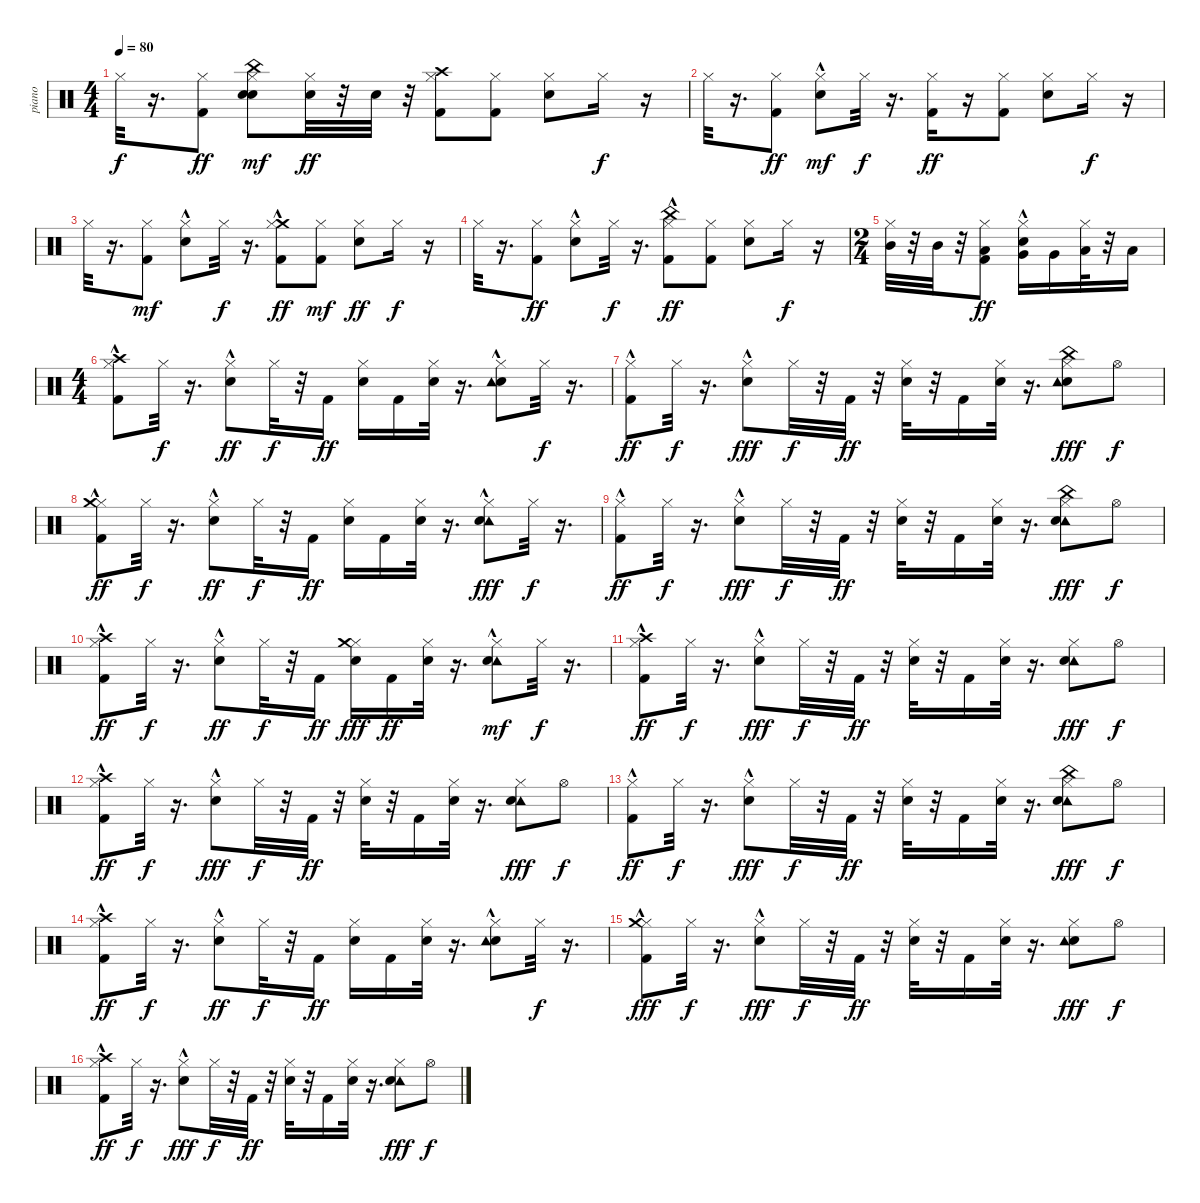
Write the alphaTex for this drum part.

\track ("piano" "piano") {instrument percussion}
\staff {score}
\articulation defaults
\ts (4 4)
\tempo 80
\clef neutral
\ks c "Hi-Hat (closed)".32{dy f}
r.16{d} ("Hi-Hat (closed)" "Kick (hit) 2").8{dy ff} ("Snare (hit) 2" "Snare (hit) 2" "China (hit)" "Hi-Hat (closed)").8{dy mf} ("Hi-Hat (closed)" "Snare (hit) 2").32{dy ff} r.32 "Snare (hit) 2".32 r.32 ("Hi-Hat (closed)" "Kick (hit) 2" "Crash high (hit)").8 ("Hi-Hat (closed)" "Kick (hit) 2").8 ("Snare (hit) 2" "Hi-Hat (closed)").8 "Hi-Hat (closed)".16{dy f} r.16 |
"Hi-Hat (closed)".32 r.16{d} ("Hi-Hat (closed)" "Kick (hit) 2").8{dy ff} ("Snare (hit) 2"{hac} "Hi-Hat (closed)").8{dy mf} "Hi-Hat (closed)".32{dy f} r.16{d} ("Hi-Hat (closed)" "Kick (hit) 2").16{dy ff} r.16 ("Hi-Hat (closed)" "Kick (hit) 2").8 ("Snare (hit) 2" "Hi-Hat (closed)").8 "Hi-Hat (closed)".16{dy f} r.16 |
"Hi-Hat (closed)".32 r.16{d} ("Kick (hit) 2" "Hi-Hat (closed)").8{dy mf} ("Snare (hit) 2"{hac} "Hi-Hat (closed)").8 "Hi-Hat (closed)".32{dy f} r.16{d} ("Kick (hit) 2" "Crash medium (hit)"{hac} "Hi-Hat (closed)").8{dy ff} ("Kick (hit) 2" "Hi-Hat (closed)").8{dy mf} ("Hi-Hat (closed)" "Snare (hit) 2").8{dy ff} "Hi-Hat (closed)".16{dy f} r.16 |
"Hi-Hat (closed)".32 r.16{d} ("Hi-Hat (closed)" "Kick (hit) 2").8{dy ff} ("Hi-Hat (closed)" "Snare (hit) 2"{hac}).8 "Hi-Hat (closed)".32{dy f} r.16{d} ("China (hit)"{hac} "Kick (hit) 2" "Hi-Hat (closed)").8{dy ff} ("Hi-Hat (closed)" "Kick (hit) 2").8 ("Snare (hit) 2" "Hi-Hat (closed)").8 "Hi-Hat (closed)".16{dy f} r.16 |
\ts (2 4)
("Mid Tom (hit)" "Hi-Hat (closed)").32 r.32 "Mid Tom (hit)".32 r.32 ("Kick (hit) 2" "Hi-Hat (closed)" "Low Tom (hit)").8{dy ff} ("Hi-Hat (closed)" "Snare (hit) 2"{hac} "Very Low Tom (hit)").16 "Very Low Tom (hit)".16 ("Low Floor Tom (hit)" "Hi-Hat (closed)").32 r.32 "Low Floor Tom (hit)".16 |
\ts (4 4)
("Crash high (hit)"{hac} "Kick (hit) 2"{hac} "Hi-Hat (closed)").8 "Hi-Hat (closed)".32{dy f} r.16{d} ("Hi-Hat (closed)" "Snare (hit) 2"{hac}).8{dy ff} "Hi-Hat (closed)".32{dy f} r.32 "Kick (hit) 2".16{dy ff} ("Hi-Hat (closed)" "Snare (hit) 2").16 "Kick (hit) 2".16 ("Snare (hit) 2" "Hi-Hat (closed)").32 r.16{d} ("Snare (hit) 2" "Hi-Hat (closed)" "Tambourine (hit)"{hac}).8 "Hi-Hat (closed)".32{dy f} r.16{d} |
("Kick (hit) 2"{hac} "Hi-Hat (closed)").8{dy ff} "Hi-Hat (closed)".32{dy f} r.16{d} ("Snare (hit) 2"{hac} "Hi-Hat (closed)").8{dy fff} "Hi-Hat (closed)".32{dy f} r.32 "Kick (hit) 2".32{dy ff} r.32 ("Snare (hit) 2" "Hi-Hat (closed)").32 r.32 "Kick (hit) 2".16 ("Hi-Hat (closed)" "Snare (hit) 2").32 r.16{d} ("Hi-Hat (closed)" "Snare (hit) 2" "Tambourine (hit)" "China (hit)").8{dy fff} "Hi-Hat (open)".8{dy f} |
("Hi-Hat (closed)" "Crash medium (hit)" "Kick (hit) 2"{hac}).8{dy ff} "Hi-Hat (closed)".32{dy f} r.16{d} ("Snare (hit) 2"{hac} "Hi-Hat (closed)").8{dy ff} "Hi-Hat (closed)".32{dy f} r.32 "Kick (hit) 2".16{dy ff} ("Hi-Hat (closed)" "Snare (hit) 2").16 "Kick (hit) 2".16 ("Hi-Hat (closed)" "Snare (hit) 2").32 r.16{d} ("Hi-Hat (closed)" "Tambourine (hit)"{hac} "Snare (hit) 2").8{dy fff} "Hi-Hat (closed)".32{dy f} r.16{d} |
("Kick (hit) 2"{hac} "Hi-Hat (closed)").8{dy ff} "Hi-Hat (closed)".32{dy f} r.16{d} ("Snare (hit) 2"{hac} "Hi-Hat (closed)").8{dy fff} "Hi-Hat (closed)".32{dy f} r.32 "Kick (hit) 2".32{dy ff} r.32 ("Hi-Hat (closed)" "Snare (hit) 2").32 r.32 "Kick (hit) 2".16 ("Snare (hit) 2" "Hi-Hat (closed)").32 r.16{d} ("Hi-Hat (closed)" "Tambourine (hit)" "Snare (hit) 2" "China (hit)").8{dy fff} "Hi-Hat (open)".8{dy f} |
("Hi-Hat (closed)" "Kick (hit) 2"{hac} "Crash high (hit)").8{dy ff} "Hi-Hat (closed)".32{dy f} r.16{d} ("Snare (hit) 2"{hac} "Hi-Hat (closed)").8{dy ff} "Hi-Hat (closed)".32{dy f} r.32 "Kick (hit) 2".16{dy ff} ("Hi-Hat (closed)" "Snare (hit) 2" "Crash medium (hit)").16{dy fff} "Kick (hit) 2".16{dy ff} ("Snare (hit) 2" "Hi-Hat (closed)").32 r.16{d} ("Tambourine (hit)"{hac} "Snare (hit) 2" "Hi-Hat (closed)").8{dy mf} "Hi-Hat (closed)".32{dy f} r.16{d} |
("Kick (hit) 2"{hac} "Hi-Hat (closed)" "Crash high (hit)"{hac}).8{dy ff} "Hi-Hat (closed)".32{dy f} r.16{d} ("Hi-Hat (closed)" "Snare (hit) 2"{hac}).8{dy fff} "Hi-Hat (closed)".32{dy f} r.32 "Kick (hit) 2".32{dy ff} r.32 ("Hi-Hat (closed)" "Snare (hit) 2").32 r.32 "Kick (hit) 2".16 ("Snare (hit) 2" "Hi-Hat (closed)").32 r.16{d} ("Tambourine (hit)" "Hi-Hat (closed)" "Snare (hit) 2").8{dy fff} "Hi-Hat (open)".8{dy f} |
("Hi-Hat (closed)" "Crash high (hit)" "Kick (hit) 2"{hac}).8{dy ff} "Hi-Hat (closed)".32{dy f} r.16{d} ("Hi-Hat (closed)" "Snare (hit) 2"{hac}).8{dy fff} "Hi-Hat (closed)".32{dy f} r.32 "Kick (hit) 2".32{dy ff} r.32 ("Snare (hit) 2" "Hi-Hat (closed)").32 r.32 "Kick (hit) 2".16 ("Snare (hit) 2" "Hi-Hat (closed)").32 r.16{d} ("Tambourine (hit)" "Snare (hit) 2" "Hi-Hat (closed)").8{dy fff} "Hi-Hat (open)".8{dy f} |
("Hi-Hat (closed)" "Kick (hit) 2"{hac}).8{dy ff} "Hi-Hat (closed)".32{dy f} r.16{d} ("Snare (hit) 2"{hac} "Hi-Hat (closed)").8{dy fff} "Hi-Hat (closed)".32{dy f} r.32 "Kick (hit) 2".32{dy ff} r.32 ("Hi-Hat (closed)" "Snare (hit) 2").32 r.32 "Kick (hit) 2".16 ("Snare (hit) 2" "Hi-Hat (closed)").32 r.16{d} ("Tambourine (hit)" "China (hit)" "Hi-Hat (closed)" "Snare (hit) 2").8{dy fff} "Hi-Hat (open)".8{dy f} |
("Kick (hit) 2"{hac} "Hi-Hat (closed)" "Crash high (hit)").8{dy ff} "Hi-Hat (closed)".32{dy f} r.16{d} ("Snare (hit) 2"{hac} "Hi-Hat (closed)").8{dy ff} "Hi-Hat (closed)".32{dy f} r.32 "Kick (hit) 2".16{dy ff} ("Hi-Hat (closed)" "Snare (hit) 2").16 "Kick (hit) 2".16 ("Snare (hit) 2" "Hi-Hat (closed)").32 r.16{d} ("Snare (hit) 2" "Hi-Hat (closed)" "Tambourine (hit)"{hac}).8 "Hi-Hat (closed)".32{dy f} r.16{d} |
("Kick (hit) 2"{hac} "Hi-Hat (closed)" "Crash medium (hit)"{hac}).8{dy fff} "Hi-Hat (closed)".32{dy f} r.16{d} ("Hi-Hat (closed)" "Snare (hit) 2"{hac}).8{dy fff} "Hi-Hat (closed)".32{dy f} r.32 "Kick (hit) 2".32{dy ff} r.32 ("Hi-Hat (closed)" "Snare (hit) 2").32 r.32 "Kick (hit) 2".16 ("Snare (hit) 2" "Hi-Hat (closed)").32 r.16{d} ("Snare (hit) 2" "Tambourine (hit)" "Hi-Hat (closed)").8{dy fff} "Hi-Hat (open)".8{dy f} |
("Hi-Hat (closed)" "Crash high (hit)" "Kick (hit) 2"{hac}).8{dy ff} "Hi-Hat (closed)".32{dy f} r.16{d} ("Snare (hit) 2"{hac} "Hi-Hat (closed)").8{dy fff} "Hi-Hat (closed)".32{dy f} r.32 "Kick (hit) 2".32{dy ff} r.32 ("Snare (hit) 2" "Hi-Hat (closed)").32 r.32 "Kick (hit) 2".16 ("Snare (hit) 2" "Hi-Hat (closed)").32 r.16{d} ("Tambourine (hit)" "Hi-Hat (closed)" "Snare (hit) 2").8{dy fff} "Hi-Hat (open)".8{dy f}
